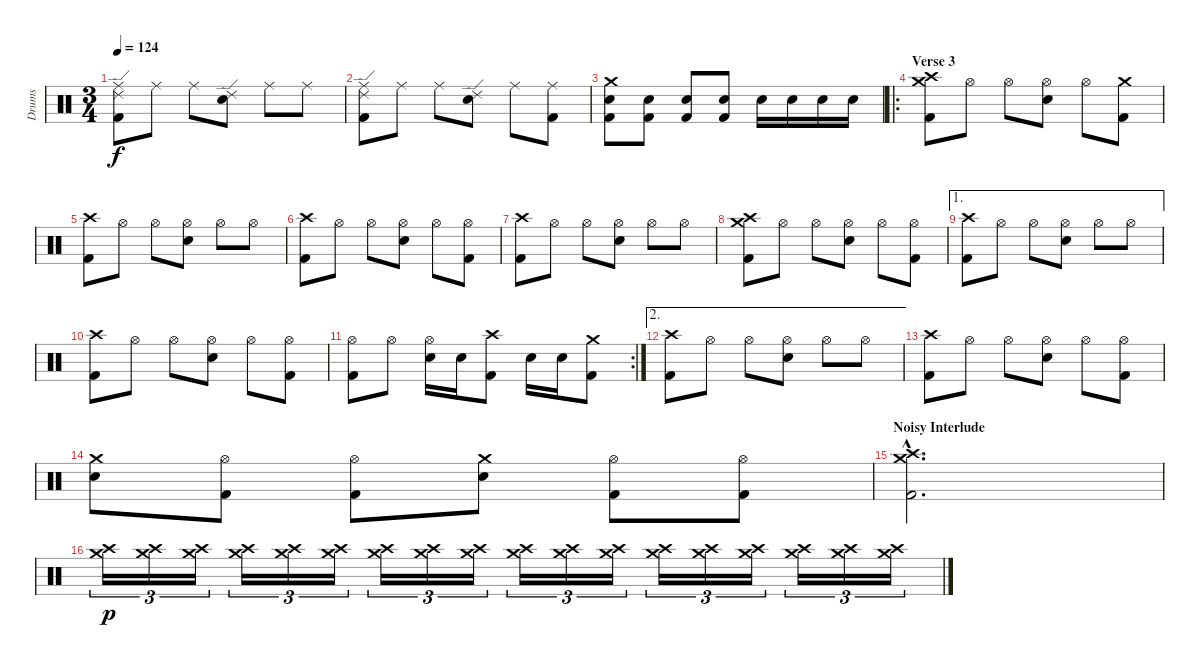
\track ("Drums" "Drums") {instrument percussion}
\staff {score}
\articulation defaults
\ts (3 4)
\tempo 124
\clef neutral
\ks c
("Ride (middle)" "Ride (edge) 2" "Kick (hit) 2").8{dy f} "Ride (middle)".8 "Ride (middle)".8 ("Ride (edge) 2" "Electric Snare (hit)").8 "Ride (middle)".8 "Ride (middle)".8 |
("Ride (middle)" "Ride (edge) 2" "Kick (hit) 2").8 "Ride (middle)".8 "Ride (middle)".8 ("Ride (edge) 2" "Electric Snare (hit)").8 "Ride (middle)".8 ("Ride (middle)" "Kick (hit) 2").8 |
("Crash medium (hit)" "Electric Snare (hit)" "Kick (hit) 2").8 ("Electric Snare (hit)" "Kick (hit) 2").8 ("Electric Snare (hit)" "Kick (hit) 2").8 ("Electric Snare (hit)" "Kick (hit) 2").8 "Electric Snare (hit)".16 "Electric Snare (hit)".16 "Electric Snare (hit)".16 "Electric Snare (hit)".16 |
\ro
\section ("" "Verse 3")
("Crash medium (hit)" "Crash high (hit)" "Kick (hit) 2").8 "Hi-Hat (open)".8 "Hi-Hat (open)".8 ("Hi-Hat (open)" "Electric Snare (hit)").8 "Hi-Hat (open)".8 ("Crash medium (hit)" "Kick (hit) 2").8 |
("Crash high (hit)" "Kick (hit) 2").8 "Hi-Hat (open)".8 "Hi-Hat (open)".8 ("Hi-Hat (open)" "Electric Snare (hit)").8 "Hi-Hat (open)".8 "Hi-Hat (open)".8 |
("Crash high (hit)" "Kick (hit) 2").8 "Hi-Hat (open)".8 "Hi-Hat (open)".8 ("Hi-Hat (open)" "Electric Snare (hit)").8 "Hi-Hat (open)".8 ("Hi-Hat (open)" "Kick (hit) 2").8 |
("Crash high (hit)" "Kick (hit) 2").8 "Hi-Hat (open)".8 "Hi-Hat (open)".8 ("Hi-Hat (open)" "Electric Snare (hit)").8 "Hi-Hat (open)".8 "Hi-Hat (open)".8 |
("Crash medium (hit)" "Crash high (hit)" "Kick (hit) 2").8 "Hi-Hat (open)".8 "Hi-Hat (open)".8 ("Hi-Hat (open)" "Electric Snare (hit)").8 "Hi-Hat (open)".8 ("Hi-Hat (open)" "Kick (hit) 2").8 |
\ae 1
("Crash high (hit)" "Kick (hit) 2").8 "Hi-Hat (open)".8 "Hi-Hat (open)".8 ("Hi-Hat (open)" "Electric Snare (hit)").8 "Hi-Hat (open)".8 "Hi-Hat (open)".8 |
("Crash high (hit)" "Kick (hit) 2").8 "Hi-Hat (open)".8 "Hi-Hat (open)".8 ("Hi-Hat (open)" "Electric Snare (hit)").8 "Hi-Hat (open)".8 ("Hi-Hat (open)" "Kick (hit) 2").8 |
\rc 2
("Hi-Hat (open)" "Kick (hit) 2").8 "Hi-Hat (open)".8 ("Hi-Hat (open)" "Electric Snare (hit)").16 "Electric Snare (hit)".16 ("Crash high (hit)" "Kick (hit) 2").8 "Electric Snare (hit)".16 "Electric Snare (hit)".16 ("Crash medium (hit)" "Kick (hit) 2").8 |
\ae 2
("Crash high (hit)" "Kick (hit) 2").8 "Hi-Hat (open)".8 "Hi-Hat (open)".8 ("Hi-Hat (open)" "Electric Snare (hit)").8 "Hi-Hat (open)".8 "Hi-Hat (open)".8 |
("Crash high (hit)" "Kick (hit) 2").8 "Hi-Hat (open)".8 "Hi-Hat (open)".8 ("Hi-Hat (open)" "Electric Snare (hit)").8 "Hi-Hat (open)".8 ("Hi-Hat (open)" "Kick (hit) 2").8 |
("Crash medium (hit)" "Electric Snare (hit)").8 ("Hi-Hat (open)" "Kick (hit) 2").8 ("Hi-Hat (open)" "Kick (hit) 2").8 ("Crash medium (hit)" "Electric Snare (hit)").8 ("Hi-Hat (open)" "Kick (hit) 2").8 ("Hi-Hat (open)" "Kick (hit) 2").8 |
\section ("" "Noisy Interlude")
("Crash medium (hit)"{hac} "Crash high (hit)"{hac} "Kick (hit) 2"{hac}).2{d} |
("Crash medium (hit)" "Crash high (hit)").16{tu (3 2) dy p} ("Crash medium (hit)" "Crash high (hit)").16{tu (3 2)} ("Crash medium (hit)" "Crash high (hit)").16{tu (3 2)} ("Crash medium (hit)" "Crash high (hit)").16{tu (3 2)} ("Crash medium (hit)" "Crash high (hit)").16{tu (3 2)} ("Crash medium (hit)" "Crash high (hit)").16{tu (3 2)} ("Crash medium (hit)" "Crash high (hit)").16{tu (3 2)} ("Crash medium (hit)" "Crash high (hit)").16{tu (3 2)} ("Crash medium (hit)" "Crash high (hit)").16{tu (3 2)} ("Crash medium (hit)" "Crash high (hit)").16{tu (3 2)} ("Crash medium (hit)" "Crash high (hit)").16{tu (3 2)} ("Crash medium (hit)" "Crash high (hit)").16{tu (3 2)} ("Crash medium (hit)" "Crash high (hit)").16{tu (3 2)} ("Crash medium (hit)" "Crash high (hit)").16{tu (3 2)} ("Crash medium (hit)" "Crash high (hit)").16{tu (3 2)} ("Crash medium (hit)" "Crash high (hit)").16{tu (3 2)} ("Crash medium (hit)" "Crash high (hit)").16{tu (3 2)} ("Crash medium (hit)" "Crash high (hit)").16{tu (3 2)}
